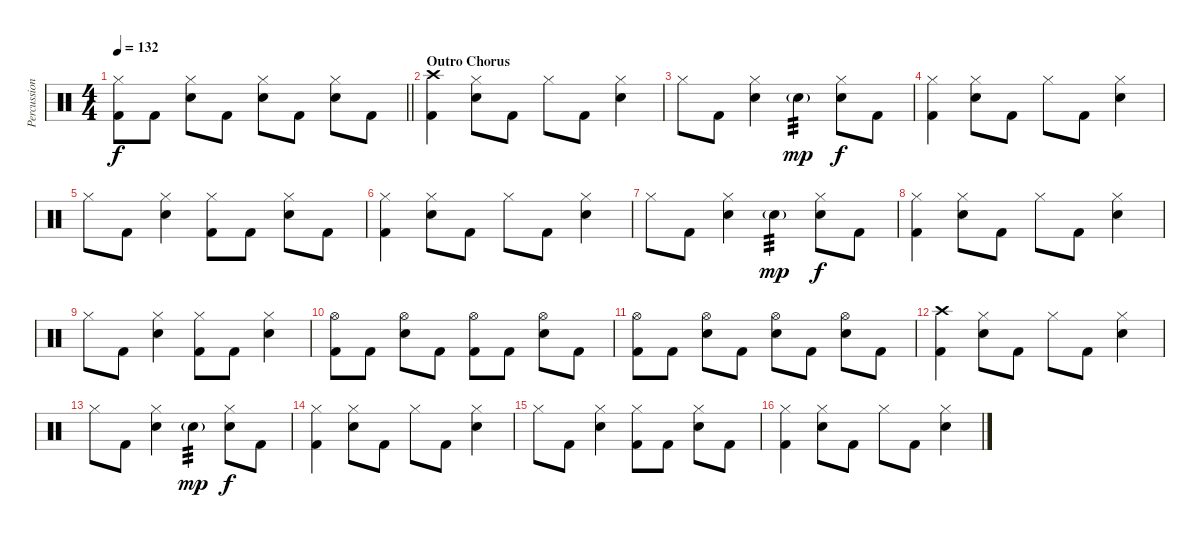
\track ("Percussion" "Percussion") {instrument percussion}
\staff {score}
\articulation defaults
\ts (4 4)
\tempo 132
\clef neutral
\barLineRight lightlight
\ks c
("Hi-Hat (closed)" "Kick (hit) 2").8{dy f} "Kick (hit) 2".8 ("Hi-Hat (closed)" "Snare (hit) 2").8 "Kick (hit) 2".8 ("Hi-Hat (closed)" "Snare (hit) 2").8 "Kick (hit) 2".8 ("Hi-Hat (closed)" "Snare (hit) 2").8 "Kick (hit) 2".8 |
\section ("" "Outro Chorus")
("Crash high (hit)" "Kick (hit) 2").4 ("Hi-Hat (closed)" "Snare (hit) 2").8 "Kick (hit) 2".8 "Hi-Hat (closed)".8 "Kick (hit) 2".8 ("Hi-Hat (closed)" "Snare (hit) 2").4 |
"Hi-Hat (closed)".8 "Kick (hit) 2".8 ("Hi-Hat (closed)" "Snare (hit) 2").4 "Snare (hit) 2"{g}.4{tp 3 dy mp} ("Hi-Hat (closed)" "Snare (hit) 2").8{dy f} "Kick (hit) 2".8 |
("Hi-Hat (closed)" "Kick (hit) 2").4 ("Hi-Hat (closed)" "Snare (hit) 2").8 "Kick (hit) 2".8 "Hi-Hat (closed)".8 "Kick (hit) 2".8 ("Hi-Hat (closed)" "Snare (hit) 2").4 |
"Hi-Hat (closed)".8 "Kick (hit) 2".8 ("Hi-Hat (closed)" "Snare (hit) 2").4 ("Hi-Hat (closed)" "Kick (hit) 2").8 "Kick (hit) 2".8 ("Hi-Hat (closed)" "Snare (hit) 2").8 "Kick (hit) 2".8 |
("Hi-Hat (closed)" "Kick (hit) 2").4 ("Hi-Hat (closed)" "Snare (hit) 2").8 "Kick (hit) 2".8 "Hi-Hat (closed)".8 "Kick (hit) 2".8 ("Hi-Hat (closed)" "Snare (hit) 2").4 |
"Hi-Hat (closed)".8 "Kick (hit) 2".8 ("Hi-Hat (closed)" "Snare (hit) 2").4 "Snare (hit) 2"{g}.4{tp 3 dy mp} ("Hi-Hat (closed)" "Snare (hit) 2").8{dy f} "Kick (hit) 2".8 |
("Hi-Hat (closed)" "Kick (hit) 2").4 ("Hi-Hat (closed)" "Snare (hit) 2").8 "Kick (hit) 2".8 "Hi-Hat (closed)".8 "Kick (hit) 2".8 ("Hi-Hat (closed)" "Snare (hit) 2").4 |
"Hi-Hat (closed)".8 "Kick (hit) 2".8 ("Hi-Hat (closed)" "Snare (hit) 2").4 ("Hi-Hat (closed)" "Kick (hit) 2").8 "Kick (hit) 2".8 ("Hi-Hat (closed)" "Snare (hit) 2").4 |
("Hi-Hat (open)" "Kick (hit) 2").8 "Kick (hit) 2".8 ("Hi-Hat (open)" "Snare (hit) 2").8 "Kick (hit) 2".8 ("Hi-Hat (open)" "Kick (hit) 2").8 "Kick (hit) 2".8 ("Hi-Hat (open)" "Snare (hit) 2").8 "Kick (hit) 2".8 |
("Hi-Hat (open)" "Kick (hit) 2").8 "Kick (hit) 2".8 ("Hi-Hat (open)" "Snare (hit) 2").8 "Kick (hit) 2".8 ("Hi-Hat (open)" "Snare (hit) 2").8 "Kick (hit) 2".8 ("Hi-Hat (open)" "Snare (hit) 2").8 "Kick (hit) 2".8 |
("Crash high (hit)" "Kick (hit) 2").4 ("Hi-Hat (closed)" "Snare (hit) 2").8 "Kick (hit) 2".8 "Hi-Hat (closed)".8 "Kick (hit) 2".8 ("Hi-Hat (closed)" "Snare (hit) 2").4 |
"Hi-Hat (closed)".8 "Kick (hit) 2".8 ("Hi-Hat (closed)" "Snare (hit) 2").4 "Snare (hit) 2"{g}.4{tp 3 dy mp} ("Hi-Hat (closed)" "Snare (hit) 2").8{dy f} "Kick (hit) 2".8 |
("Hi-Hat (closed)" "Kick (hit) 2").4 ("Hi-Hat (closed)" "Snare (hit) 2").8 "Kick (hit) 2".8 "Hi-Hat (closed)".8 "Kick (hit) 2".8 ("Hi-Hat (closed)" "Snare (hit) 2").4 |
"Hi-Hat (closed)".8 "Kick (hit) 2".8 ("Hi-Hat (closed)" "Snare (hit) 2").4 ("Hi-Hat (closed)" "Kick (hit) 2").8 "Kick (hit) 2".8 ("Hi-Hat (closed)" "Snare (hit) 2").8 "Kick (hit) 2".8 |
("Hi-Hat (closed)" "Kick (hit) 2").4 ("Hi-Hat (closed)" "Snare (hit) 2").8 "Kick (hit) 2".8 "Hi-Hat (closed)".8 "Kick (hit) 2".8 ("Hi-Hat (closed)" "Snare (hit) 2").4
